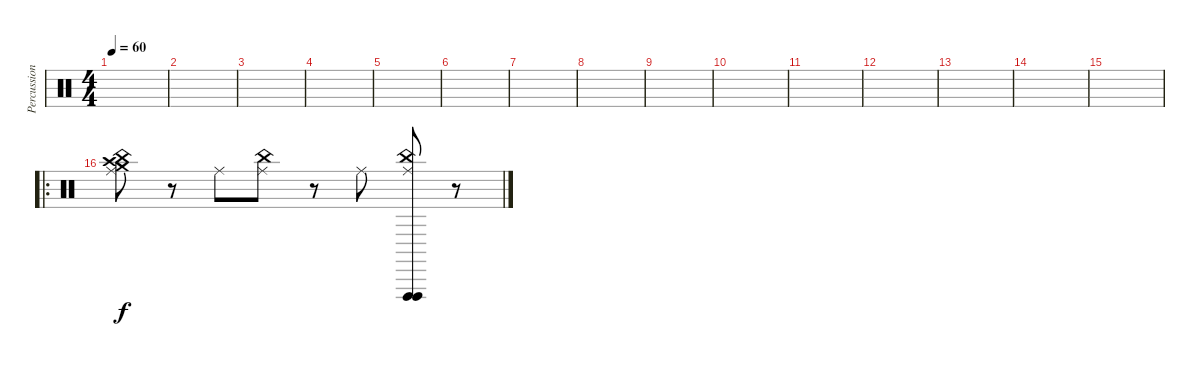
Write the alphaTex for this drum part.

\track ("Percussions" "Percussion") {instrument percussion}
\staff {score}
\articulation defaults
\ts (4 4)
\tempo 60
\clef neutral
\ks c
|
|
|
|
|
|
|
|
|
|
|
|
|
|
|
\ro
("Ride (middle)" "Crash high (hit)" "China (hit)" "Crash medium (hit)").8 r.8 "Ride (middle)".8 ("Ride (middle)" "China (hit)").8 r.8 "Ride (middle)".8 ("Ride (middle)" "Vibraslap (hit)" "China (hit)" "Vibraslap (hit)").8 r.8
